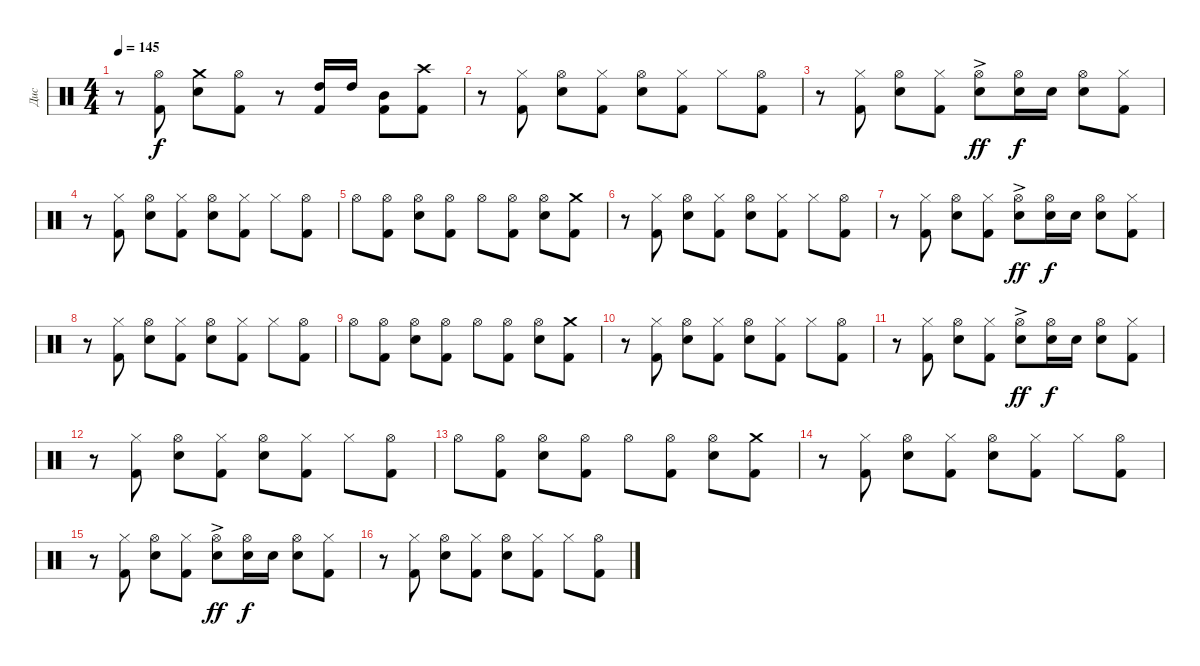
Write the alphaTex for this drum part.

\track ("Дис" "Дис") {instrument percussion}
\staff {score}
\articulation defaults
\ts (4 4)
\tempo 145
\clef neutral
\ks c
r.8{dy f} ("Hi-Hat (open)" "Kick (hit) 2").8 ("Crash medium (hit)" "Electric Snare (hit)").8 ("Hi-Hat (open)" "Kick (hit) 2").8 r.8 ("High Tom (hit)" "Kick (hit) 2").16 "High Tom (hit)".16 ("Mid Tom (hit)" "Kick (hit) 2").8 ("Crash high (hit)" "Kick (hit) 2").8 |
r.8 ("Hi-Hat (closed)" "Kick (hit) 2").8 ("Hi-Hat (open)" "Electric Snare (hit)").8 ("Hi-Hat (closed)" "Kick (hit) 2").8 ("Hi-Hat (open)" "Electric Snare (hit)").8 ("Hi-Hat (closed)" "Kick (hit) 2").8 "Hi-Hat (closed)".8 ("Hi-Hat (open)" "Kick (hit) 2").8 |
r.8 ("Hi-Hat (closed)" "Kick (hit) 2").8 ("Hi-Hat (open)" "Electric Snare (hit)").8 ("Hi-Hat (closed)" "Kick (hit) 2").8 ("Hi-Hat (open)" "Electric Snare (hit)"{ac}).8{dy ff} ("Hi-Hat (open)" "Electric Snare (hit)").16{dy f} "Electric Snare (hit)".16 ("Hi-Hat (open)" "Electric Snare (hit)").8 ("Hi-Hat (closed)" "Kick (hit) 2").8 |
r.8 ("Hi-Hat (closed)" "Kick (hit) 2").8 ("Hi-Hat (open)" "Electric Snare (hit)").8 ("Hi-Hat (closed)" "Kick (hit) 2").8 ("Hi-Hat (open)" "Electric Snare (hit)").8 ("Hi-Hat (closed)" "Kick (hit) 2").8 "Hi-Hat (closed)".8 ("Hi-Hat (open)" "Kick (hit) 2").8 |
"Hi-Hat (open)".8 ("Hi-Hat (open)" "Kick (hit) 2").8 ("Hi-Hat (open)" "Electric Snare (hit)").8 ("Hi-Hat (open)" "Kick (hit) 2").8 "Hi-Hat (open)".8 ("Hi-Hat (open)" "Kick (hit) 2").8 ("Hi-Hat (open)" "Electric Snare (hit)").8 ("Crash medium (hit)" "Kick (hit) 2").8 |
r.8 ("Hi-Hat (closed)" "Kick (hit) 2").8 ("Hi-Hat (open)" "Electric Snare (hit)").8 ("Hi-Hat (closed)" "Kick (hit) 2").8 ("Hi-Hat (open)" "Electric Snare (hit)").8 ("Hi-Hat (closed)" "Kick (hit) 2").8 "Hi-Hat (closed)".8 ("Hi-Hat (open)" "Kick (hit) 2").8 |
r.8 ("Hi-Hat (closed)" "Kick (hit) 2").8 ("Hi-Hat (open)" "Electric Snare (hit)").8 ("Hi-Hat (closed)" "Kick (hit) 2").8 ("Hi-Hat (open)" "Electric Snare (hit)"{ac}).8{dy ff} ("Hi-Hat (open)" "Electric Snare (hit)").16{dy f} "Electric Snare (hit)".16 ("Hi-Hat (open)" "Electric Snare (hit)").8 ("Hi-Hat (closed)" "Kick (hit) 2").8 |
r.8 ("Hi-Hat (closed)" "Kick (hit) 2").8 ("Hi-Hat (open)" "Electric Snare (hit)").8 ("Hi-Hat (closed)" "Kick (hit) 2").8 ("Hi-Hat (open)" "Electric Snare (hit)").8 ("Hi-Hat (closed)" "Kick (hit) 2").8 "Hi-Hat (closed)".8 ("Hi-Hat (open)" "Kick (hit) 2").8 |
"Hi-Hat (open)".8 ("Hi-Hat (open)" "Kick (hit) 2").8 ("Hi-Hat (open)" "Electric Snare (hit)").8 ("Hi-Hat (open)" "Kick (hit) 2").8 "Hi-Hat (open)".8 ("Hi-Hat (open)" "Kick (hit) 2").8 ("Hi-Hat (open)" "Electric Snare (hit)").8 ("Crash medium (hit)" "Kick (hit) 2").8 |
r.8 ("Hi-Hat (closed)" "Kick (hit) 2").8 ("Hi-Hat (open)" "Electric Snare (hit)").8 ("Hi-Hat (closed)" "Kick (hit) 2").8 ("Hi-Hat (open)" "Electric Snare (hit)").8 ("Hi-Hat (closed)" "Kick (hit) 2").8 "Hi-Hat (closed)".8 ("Hi-Hat (open)" "Kick (hit) 2").8 |
r.8 ("Hi-Hat (closed)" "Kick (hit) 2").8 ("Hi-Hat (open)" "Electric Snare (hit)").8 ("Hi-Hat (closed)" "Kick (hit) 2").8 ("Hi-Hat (open)" "Electric Snare (hit)"{ac}).8{dy ff} ("Hi-Hat (open)" "Electric Snare (hit)").16{dy f} "Electric Snare (hit)".16 ("Hi-Hat (open)" "Electric Snare (hit)").8 ("Hi-Hat (closed)" "Kick (hit) 2").8 |
r.8 ("Hi-Hat (closed)" "Kick (hit) 2").8 ("Hi-Hat (open)" "Electric Snare (hit)").8 ("Hi-Hat (closed)" "Kick (hit) 2").8 ("Hi-Hat (open)" "Electric Snare (hit)").8 ("Hi-Hat (closed)" "Kick (hit) 2").8 "Hi-Hat (closed)".8 ("Hi-Hat (open)" "Kick (hit) 2").8 |
"Hi-Hat (open)".8 ("Hi-Hat (open)" "Kick (hit) 2").8 ("Hi-Hat (open)" "Electric Snare (hit)").8 ("Hi-Hat (open)" "Kick (hit) 2").8 "Hi-Hat (open)".8 ("Hi-Hat (open)" "Kick (hit) 2").8 ("Hi-Hat (open)" "Electric Snare (hit)").8 ("Crash medium (hit)" "Kick (hit) 2").8 |
r.8 ("Hi-Hat (closed)" "Kick (hit) 2").8 ("Hi-Hat (open)" "Electric Snare (hit)").8 ("Hi-Hat (closed)" "Kick (hit) 2").8 ("Hi-Hat (open)" "Electric Snare (hit)").8 ("Hi-Hat (closed)" "Kick (hit) 2").8 "Hi-Hat (closed)".8 ("Hi-Hat (open)" "Kick (hit) 2").8 |
r.8 ("Hi-Hat (closed)" "Kick (hit) 2").8 ("Hi-Hat (open)" "Electric Snare (hit)").8 ("Hi-Hat (closed)" "Kick (hit) 2").8 ("Hi-Hat (open)" "Electric Snare (hit)"{ac}).8{dy ff} ("Hi-Hat (open)" "Electric Snare (hit)").16{dy f} "Electric Snare (hit)".16 ("Hi-Hat (open)" "Electric Snare (hit)").8 ("Hi-Hat (closed)" "Kick (hit) 2").8 |
r.8 ("Hi-Hat (closed)" "Kick (hit) 2").8 ("Hi-Hat (open)" "Electric Snare (hit)").8 ("Hi-Hat (closed)" "Kick (hit) 2").8 ("Hi-Hat (open)" "Electric Snare (hit)").8 ("Hi-Hat (closed)" "Kick (hit) 2").8 "Hi-Hat (closed)".8 ("Hi-Hat (open)" "Kick (hit) 2").8
